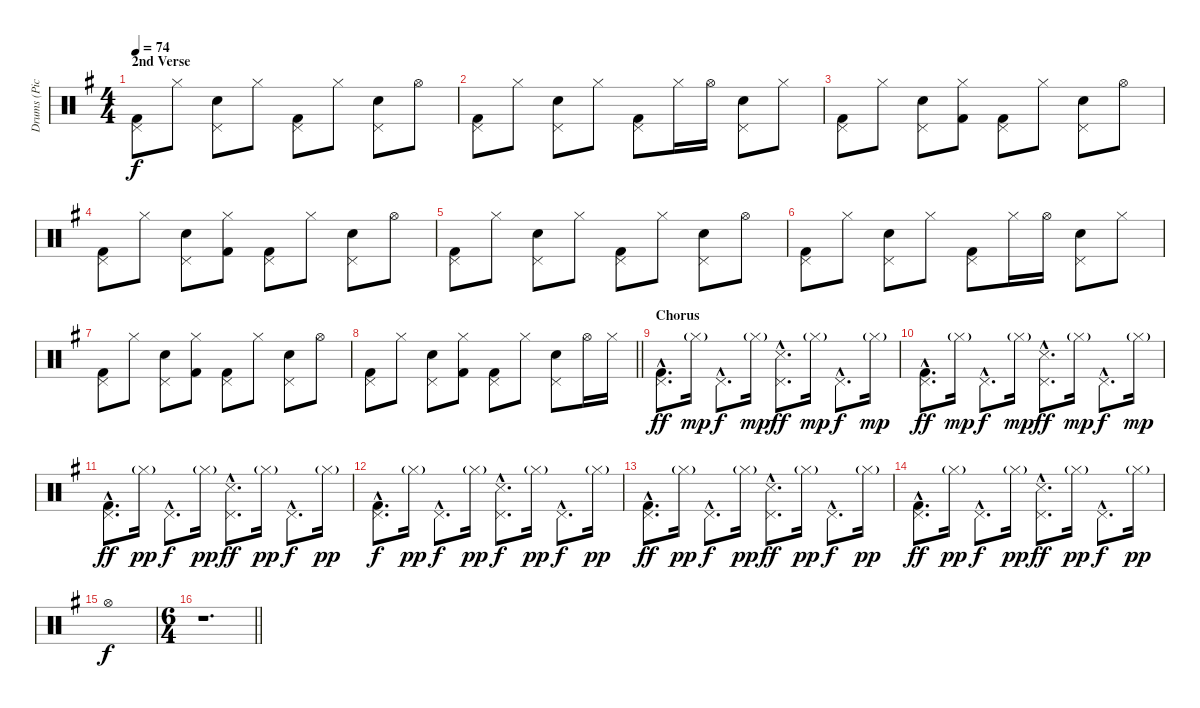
\track ("Drums (Pick)" "Drums (Pic") {instrument percussion}
\staff {score}
\articulation defaults
\ts (4 4)
\section ("" "2nd Verse")
\tempo 74
\clef neutral
\ks g
("Kick (hit) 2" "Pedal Hi-Hat (hit)").8{dy f} "Hi-Hat (closed)".8 ("Snare (hit) 2" "Pedal Hi-Hat (hit)").8 "Hi-Hat (closed)".8 ("Kick (hit) 2" "Pedal Hi-Hat (hit)").8 "Hi-Hat (closed)".8 ("Snare (hit) 2" "Pedal Hi-Hat (hit)").8 "Hi-Hat (open)".8 |
("Kick (hit) 2" "Pedal Hi-Hat (hit)").8 "Hi-Hat (closed)".8 ("Snare (hit) 2" "Pedal Hi-Hat (hit)").8 "Hi-Hat (closed)".8 ("Kick (hit) 2" "Pedal Hi-Hat (hit)").8 "Hi-Hat (closed)".16 "Hi-Hat (open)".16 ("Snare (hit) 2" "Pedal Hi-Hat (hit)").8 "Hi-Hat (closed)".8 |
("Kick (hit) 2" "Pedal Hi-Hat (hit)").8 "Hi-Hat (closed)".8 ("Snare (hit) 2" "Pedal Hi-Hat (hit)").8 ("Hi-Hat (closed)" "Kick (hit) 2").8 ("Kick (hit) 2" "Pedal Hi-Hat (hit)").8 "Hi-Hat (closed)".8 ("Snare (hit) 2" "Pedal Hi-Hat (hit)").8 "Hi-Hat (open)".8 |
("Kick (hit) 2" "Pedal Hi-Hat (hit)").8 "Hi-Hat (closed)".8 ("Snare (hit) 2" "Pedal Hi-Hat (hit)").8 ("Hi-Hat (closed)" "Kick (hit) 2").8 ("Kick (hit) 2" "Pedal Hi-Hat (hit)").8 "Hi-Hat (closed)".8 ("Snare (hit) 2" "Pedal Hi-Hat (hit)").8 "Hi-Hat (open)".8 |
("Kick (hit) 2" "Pedal Hi-Hat (hit)").8 "Hi-Hat (closed)".8 ("Snare (hit) 2" "Pedal Hi-Hat (hit)").8 "Hi-Hat (closed)".8 ("Kick (hit) 2" "Pedal Hi-Hat (hit)").8 "Hi-Hat (closed)".8 ("Snare (hit) 2" "Pedal Hi-Hat (hit)").8 "Hi-Hat (open)".8 |
("Kick (hit) 2" "Pedal Hi-Hat (hit)").8 "Hi-Hat (closed)".8 ("Snare (hit) 2" "Pedal Hi-Hat (hit)").8 "Hi-Hat (closed)".8 ("Kick (hit) 2" "Pedal Hi-Hat (hit)").8 "Hi-Hat (closed)".16 "Hi-Hat (open)".16 ("Snare (hit) 2" "Pedal Hi-Hat (hit)").8 "Hi-Hat (closed)".8 |
("Kick (hit) 2" "Pedal Hi-Hat (hit)").8 "Hi-Hat (closed)".8 ("Snare (hit) 2" "Pedal Hi-Hat (hit)").8 ("Hi-Hat (closed)" "Kick (hit) 2").8 ("Kick (hit) 2" "Pedal Hi-Hat (hit)").8 "Hi-Hat (closed)".8 ("Snare (hit) 2" "Pedal Hi-Hat (hit)").8 "Hi-Hat (open)".8 |
\barLineRight lightlight
("Kick (hit) 2" "Pedal Hi-Hat (hit)").8 "Hi-Hat (closed)".8 ("Snare (hit) 2" "Pedal Hi-Hat (hit)").8 ("Hi-Hat (closed)" "Kick (hit) 2").8 ("Kick (hit) 2" "Pedal Hi-Hat (hit)").8 "Hi-Hat (closed)".8 ("Snare (hit) 2" "Pedal Hi-Hat (hit)").8 "Hi-Hat (open)".16 "Hi-Hat (closed)".16 |
\section ("" "Chorus")
("Pedal Hi-Hat (hit)"{hac} "Kick (hit) 2"{hac}).8{d dy ff} "Hi-Hat (closed)"{g}.16{dy mp} "Pedal Hi-Hat (hit)"{hac}.8{d dy f} "Hi-Hat (closed)"{g}.16{dy mp} ("Pedal Hi-Hat (hit)"{hac} "Snare (side stick) 3"{hac}).8{d dy ff} "Hi-Hat (closed)"{g}.16{dy mp} "Pedal Hi-Hat (hit)"{hac}.8{d dy f} "Hi-Hat (closed)"{g}.16{dy mp} |
("Pedal Hi-Hat (hit)"{hac} "Kick (hit) 2"{hac}).8{d dy ff} "Hi-Hat (closed)"{g}.16{dy mp} "Pedal Hi-Hat (hit)"{hac}.8{d dy f} "Hi-Hat (closed)"{g}.16{dy mp} ("Pedal Hi-Hat (hit)"{hac} "Snare (side stick) 3"{hac}).8{d dy ff} "Hi-Hat (closed)"{g}.16{dy mp} "Pedal Hi-Hat (hit)"{hac}.8{d dy f} "Hi-Hat (closed)"{g}.16{dy mp} |
("Pedal Hi-Hat (hit)"{hac} "Kick (hit) 2"{hac}).8{d dy ff} "Hi-Hat (closed)"{g}.16{dy pp} "Pedal Hi-Hat (hit)"{hac}.8{d dy f} "Hi-Hat (closed)"{g}.16{dy pp} ("Pedal Hi-Hat (hit)"{hac} "Snare (side stick) 3"{hac}).8{d dy ff} "Hi-Hat (closed)"{g}.16{dy pp} "Pedal Hi-Hat (hit)"{hac}.8{d dy f} "Hi-Hat (closed)"{g}.16{dy pp} |
("Pedal Hi-Hat (hit)"{hac} "Kick (hit) 2"{hac}).8{d dy f} "Hi-Hat (closed)"{g}.16{dy pp} "Pedal Hi-Hat (hit)"{hac}.8{d dy f} "Hi-Hat (closed)"{g}.16{dy pp} ("Pedal Hi-Hat (hit)"{hac} "Snare (side stick) 3"{hac}).8{d dy f} "Hi-Hat (closed)"{g}.16{dy pp} "Pedal Hi-Hat (hit)"{hac}.8{d dy f} "Hi-Hat (closed)"{g}.16{dy pp} |
("Pedal Hi-Hat (hit)"{hac} "Kick (hit) 2"{hac}).8{d dy ff} "Hi-Hat (closed)"{g}.16{dy pp} "Pedal Hi-Hat (hit)"{hac}.8{d dy f} "Hi-Hat (closed)"{g}.16{dy pp} ("Pedal Hi-Hat (hit)"{hac} "Snare (side stick) 3"{hac}).8{d dy ff} "Hi-Hat (closed)"{g}.16{dy pp} "Pedal Hi-Hat (hit)"{hac}.8{d dy f} "Hi-Hat (closed)"{g}.16{dy pp} |
("Pedal Hi-Hat (hit)"{hac} "Kick (hit) 2"{hac}).8{d dy ff} "Hi-Hat (closed)"{g}.16{dy pp} "Pedal Hi-Hat (hit)"{hac}.8{d dy f} "Hi-Hat (closed)"{g}.16{dy pp} ("Pedal Hi-Hat (hit)"{hac} "Snare (side stick) 3"{hac}).8{d dy ff} "Hi-Hat (closed)"{g}.16{dy pp} "Pedal Hi-Hat (hit)"{hac}.8{d dy f} "Hi-Hat (closed)"{g}.16{dy pp} |
"Hi-Hat (open)".1{dy f} |
\ts (6 4)
\barLineRight lightlight
r.1{d}
